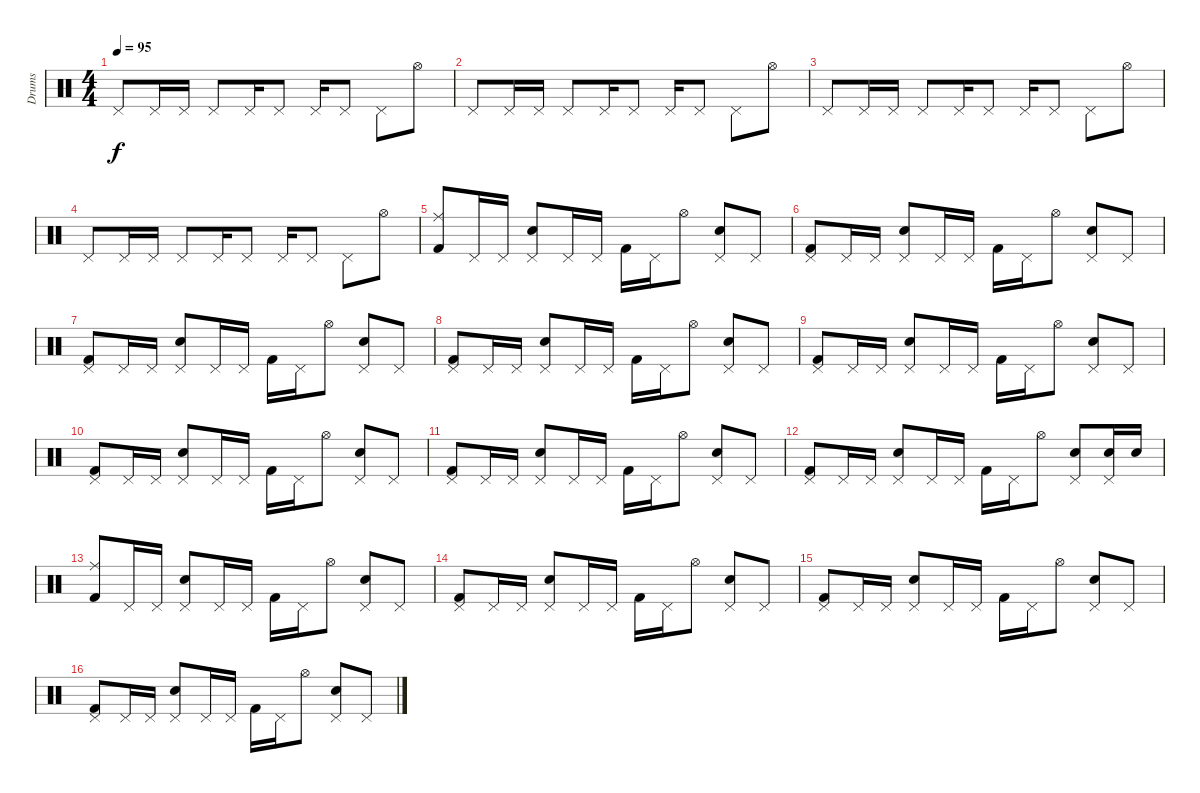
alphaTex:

\track ("Drums" "Drums") {instrument percussion}
\staff {score}
\articulation defaults
\ts (4 4)
\tempo 95
\clef neutral
\ks c "Pedal Hi-Hat (hit)".8{dy f} "Pedal Hi-Hat (hit)".16 "Pedal Hi-Hat (hit)".16 "Pedal Hi-Hat (hit)".8 "Pedal Hi-Hat (hit)".16 "Pedal Hi-Hat (hit)".8 "Pedal Hi-Hat (hit)".16 "Pedal Hi-Hat (hit)".8 "Pedal Hi-Hat (hit)".8 "Hi-Hat (open)".8
|
"Pedal Hi-Hat (hit)".8 "Pedal Hi-Hat (hit)".16 "Pedal Hi-Hat (hit)".16 "Pedal Hi-Hat (hit)".8 "Pedal Hi-Hat (hit)".16 "Pedal Hi-Hat (hit)".8 "Pedal Hi-Hat (hit)".16 "Pedal Hi-Hat (hit)".8 "Pedal Hi-Hat (hit)".8 "Hi-Hat (open)".8 |
"Pedal Hi-Hat (hit)".8 "Pedal Hi-Hat (hit)".16 "Pedal Hi-Hat (hit)".16 "Pedal Hi-Hat (hit)".8 "Pedal Hi-Hat (hit)".16 "Pedal Hi-Hat (hit)".8 "Pedal Hi-Hat (hit)".16 "Pedal Hi-Hat (hit)".8 "Pedal Hi-Hat (hit)".8 "Hi-Hat (open)".8 |
"Pedal Hi-Hat (hit)".8 "Pedal Hi-Hat (hit)".16 "Pedal Hi-Hat (hit)".16 "Pedal Hi-Hat (hit)".8 "Pedal Hi-Hat (hit)".16 "Pedal Hi-Hat (hit)".8 "Pedal Hi-Hat (hit)".16 "Pedal Hi-Hat (hit)".8 "Pedal Hi-Hat (hit)".8 "Hi-Hat (open)".8 |
("Ride (middle)" "Kick (hit) 2").8 "Pedal Hi-Hat (hit)".16 "Pedal Hi-Hat (hit)".16 ("Pedal Hi-Hat (hit)" "Snare (hit) 2").8 "Pedal Hi-Hat (hit)".16 "Pedal Hi-Hat (hit)".16 "Kick (hit) 2".16 "Pedal Hi-Hat (hit)".16 "Hi-Hat (open)".8 ("Pedal Hi-Hat (hit)" "Snare (hit) 2").8 "Pedal Hi-Hat (hit)".8 |
("Pedal Hi-Hat (hit)" "Kick (hit) 2").8 "Pedal Hi-Hat (hit)".16 "Pedal Hi-Hat (hit)".16 ("Pedal Hi-Hat (hit)" "Snare (hit) 2").8 "Pedal Hi-Hat (hit)".16 "Pedal Hi-Hat (hit)".16 "Kick (hit) 2".16 "Pedal Hi-Hat (hit)".16 "Hi-Hat (open)".8 ("Pedal Hi-Hat (hit)" "Snare (hit) 2").8 "Pedal Hi-Hat (hit)".8 |
("Pedal Hi-Hat (hit)" "Kick (hit) 2").8 "Pedal Hi-Hat (hit)".16 "Pedal Hi-Hat (hit)".16 ("Pedal Hi-Hat (hit)" "Snare (hit) 2").8 "Pedal Hi-Hat (hit)".16 "Pedal Hi-Hat (hit)".16 "Kick (hit) 2".16 "Pedal Hi-Hat (hit)".16 "Hi-Hat (open)".8 ("Pedal Hi-Hat (hit)" "Snare (hit) 2").8 "Pedal Hi-Hat (hit)".8 |
("Pedal Hi-Hat (hit)" "Kick (hit) 2").8 "Pedal Hi-Hat (hit)".16 "Pedal Hi-Hat (hit)".16 ("Pedal Hi-Hat (hit)" "Snare (hit) 2").8 "Pedal Hi-Hat (hit)".16 "Pedal Hi-Hat (hit)".16 "Kick (hit) 2".16 "Pedal Hi-Hat (hit)".16 "Hi-Hat (open)".8 ("Pedal Hi-Hat (hit)" "Snare (hit) 2").8 "Pedal Hi-Hat (hit)".8 |
("Pedal Hi-Hat (hit)" "Kick (hit) 2").8 "Pedal Hi-Hat (hit)".16 "Pedal Hi-Hat (hit)".16 ("Pedal Hi-Hat (hit)" "Snare (hit) 2").8 "Pedal Hi-Hat (hit)".16 "Pedal Hi-Hat (hit)".16 "Kick (hit) 2".16 "Pedal Hi-Hat (hit)".16 "Hi-Hat (open)".8 ("Pedal Hi-Hat (hit)" "Snare (hit) 2").8 "Pedal Hi-Hat (hit)".8 |
("Pedal Hi-Hat (hit)" "Kick (hit) 2").8 "Pedal Hi-Hat (hit)".16 "Pedal Hi-Hat (hit)".16 ("Pedal Hi-Hat (hit)" "Snare (hit) 2").8 "Pedal Hi-Hat (hit)".16 "Pedal Hi-Hat (hit)".16 "Kick (hit) 2".16 "Pedal Hi-Hat (hit)".16 "Hi-Hat (open)".8 ("Pedal Hi-Hat (hit)" "Snare (hit) 2").8 "Pedal Hi-Hat (hit)".8 |
("Pedal Hi-Hat (hit)" "Kick (hit) 2").8 "Pedal Hi-Hat (hit)".16 "Pedal Hi-Hat (hit)".16 ("Pedal Hi-Hat (hit)" "Snare (hit) 2").8 "Pedal Hi-Hat (hit)".16 "Pedal Hi-Hat (hit)".16 "Kick (hit) 2".16 "Pedal Hi-Hat (hit)".16 "Hi-Hat (open)".8 ("Pedal Hi-Hat (hit)" "Snare (hit) 2").8 "Pedal Hi-Hat (hit)".8 |
("Pedal Hi-Hat (hit)" "Kick (hit) 2").8 "Pedal Hi-Hat (hit)".16 "Pedal Hi-Hat (hit)".16 ("Pedal Hi-Hat (hit)" "Snare (hit) 2").8 "Pedal Hi-Hat (hit)".16 "Pedal Hi-Hat (hit)".16 "Kick (hit) 2".16 "Pedal Hi-Hat (hit)".16 "Hi-Hat (open)".8 ("Pedal Hi-Hat (hit)" "Snare (hit) 2").8 ("Pedal Hi-Hat (hit)" "Snare (hit) 2").16 "Snare (hit) 2".16 |
("Ride (middle)" "Kick (hit) 2").8 "Pedal Hi-Hat (hit)".16 "Pedal Hi-Hat (hit)".16 ("Pedal Hi-Hat (hit)" "Snare (hit) 2").8 "Pedal Hi-Hat (hit)".16 "Pedal Hi-Hat (hit)".16 "Kick (hit) 2".16 "Pedal Hi-Hat (hit)".16 "Hi-Hat (open)".8 ("Pedal Hi-Hat (hit)" "Snare (hit) 2").8 "Pedal Hi-Hat (hit)".8 |
("Pedal Hi-Hat (hit)" "Kick (hit) 2").8 "Pedal Hi-Hat (hit)".16 "Pedal Hi-Hat (hit)".16 ("Pedal Hi-Hat (hit)" "Snare (hit) 2").8 "Pedal Hi-Hat (hit)".16 "Pedal Hi-Hat (hit)".16 "Kick (hit) 2".16 "Pedal Hi-Hat (hit)".16 "Hi-Hat (open)".8 ("Pedal Hi-Hat (hit)" "Snare (hit) 2").8 "Pedal Hi-Hat (hit)".8 |
("Pedal Hi-Hat (hit)" "Kick (hit) 2").8 "Pedal Hi-Hat (hit)".16 "Pedal Hi-Hat (hit)".16 ("Pedal Hi-Hat (hit)" "Snare (hit) 2").8 "Pedal Hi-Hat (hit)".16 "Pedal Hi-Hat (hit)".16 "Kick (hit) 2".16 "Pedal Hi-Hat (hit)".16 "Hi-Hat (open)".8 ("Pedal Hi-Hat (hit)" "Snare (hit) 2").8 "Pedal Hi-Hat (hit)".8 |
("Pedal Hi-Hat (hit)" "Kick (hit) 2").8 "Pedal Hi-Hat (hit)".16 "Pedal Hi-Hat (hit)".16 ("Pedal Hi-Hat (hit)" "Snare (hit) 2").8 "Pedal Hi-Hat (hit)".16 "Pedal Hi-Hat (hit)".16 "Kick (hit) 2".16 "Pedal Hi-Hat (hit)".16 "Hi-Hat (open)".8 ("Pedal Hi-Hat (hit)" "Snare (hit) 2").8 "Pedal Hi-Hat (hit)".8
